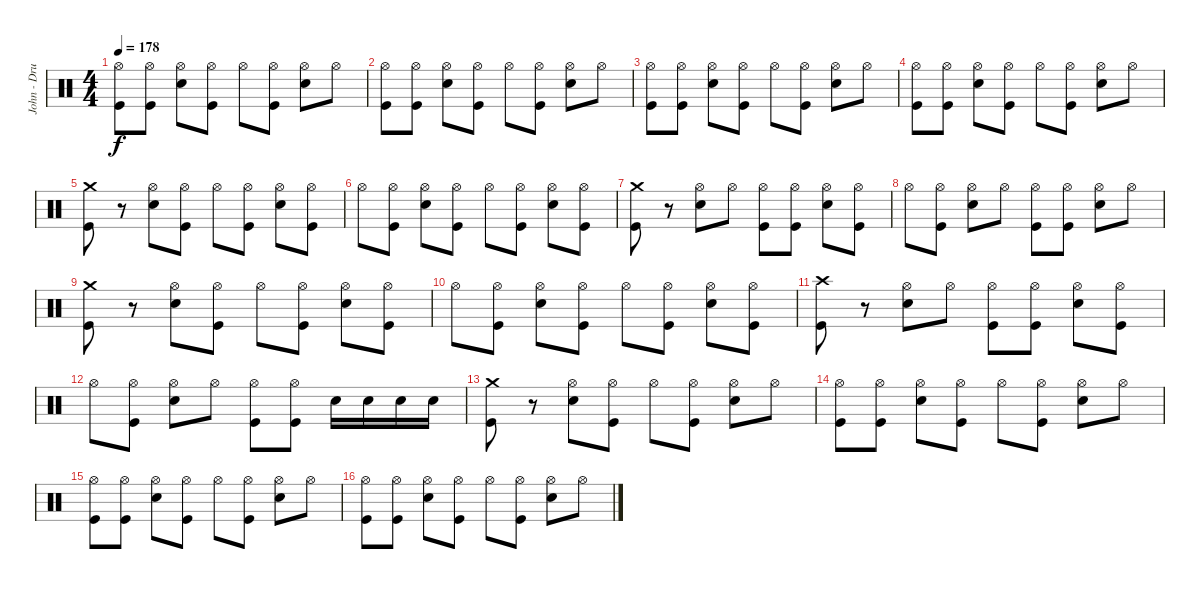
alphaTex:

\track ("John - Drums" "John - Dru") {instrument percussion}
\staff {score}
\articulation defaults
\ts (4 4)
\tempo 178
\clef neutral
\ks c
("Hi-Hat (open)" "Kick (hit)").8{dy f} ("Hi-Hat (open)" "Kick (hit)").8 ("Hi-Hat (open)" "Electric Snare (hit)").8 ("Hi-Hat (open)" "Kick (hit)").8 "Hi-Hat (open)".8 ("Hi-Hat (open)" "Kick (hit)").8 ("Hi-Hat (open)" "Electric Snare (hit)").8 "Hi-Hat (open)".8 |
("Hi-Hat (open)" "Kick (hit)").8 ("Hi-Hat (open)" "Kick (hit)").8 ("Hi-Hat (open)" "Electric Snare (hit)").8 ("Hi-Hat (open)" "Kick (hit)").8 "Hi-Hat (open)".8 ("Hi-Hat (open)" "Kick (hit)").8 ("Hi-Hat (open)" "Electric Snare (hit)").8 "Hi-Hat (open)".8 |
("Hi-Hat (open)" "Kick (hit)").8 ("Hi-Hat (open)" "Kick (hit)").8 ("Hi-Hat (open)" "Electric Snare (hit)").8 ("Hi-Hat (open)" "Kick (hit)").8 "Hi-Hat (open)".8 ("Hi-Hat (open)" "Kick (hit)").8 ("Hi-Hat (open)" "Electric Snare (hit)").8 "Hi-Hat (open)".8 |
("Hi-Hat (open)" "Kick (hit)").8 ("Hi-Hat (open)" "Kick (hit)").8 ("Hi-Hat (open)" "Electric Snare (hit)").8 ("Hi-Hat (open)" "Kick (hit)").8 "Hi-Hat (open)".8 ("Hi-Hat (open)" "Kick (hit)").8 ("Hi-Hat (open)" "Electric Snare (hit)").8 "Hi-Hat (open)".8 |
("Crash medium (hit)" "Kick (hit)").8 r.8 ("Hi-Hat (open)" "Electric Snare (hit)").8 ("Hi-Hat (open)" "Kick (hit)").8 "Hi-Hat (open)".8 ("Hi-Hat (open)" "Kick (hit)").8 ("Hi-Hat (open)" "Electric Snare (hit)").8 ("Hi-Hat (open)" "Kick (hit)").8 |
"Hi-Hat (open)".8 ("Hi-Hat (open)" "Kick (hit)").8 ("Hi-Hat (open)" "Electric Snare (hit)").8 ("Hi-Hat (open)" "Kick (hit)").8 "Hi-Hat (open)".8 ("Hi-Hat (open)" "Kick (hit)").8 ("Hi-Hat (open)" "Electric Snare (hit)").8 ("Hi-Hat (open)" "Kick (hit)").8 |
("Crash medium (hit)" "Kick (hit)").8 r.8 ("Hi-Hat (open)" "Electric Snare (hit)").8 "Hi-Hat (open)".8 ("Hi-Hat (open)" "Kick (hit)").8 ("Hi-Hat (open)" "Kick (hit)").8 ("Hi-Hat (open)" "Electric Snare (hit)").8 ("Hi-Hat (open)" "Kick (hit)").8 |
"Hi-Hat (open)".8 ("Hi-Hat (open)" "Kick (hit)").8 ("Hi-Hat (open)" "Electric Snare (hit)").8 "Hi-Hat (open)".8 ("Hi-Hat (open)" "Kick (hit)").8 ("Hi-Hat (open)" "Kick (hit)").8 ("Hi-Hat (open)" "Electric Snare (hit)").8 "Hi-Hat (open)".8 |
("Crash medium (hit)" "Kick (hit)").8 r.8 ("Hi-Hat (open)" "Electric Snare (hit)").8 ("Hi-Hat (open)" "Kick (hit)").8 "Hi-Hat (open)".8 ("Hi-Hat (open)" "Kick (hit)").8 ("Hi-Hat (open)" "Electric Snare (hit)").8 ("Hi-Hat (open)" "Kick (hit)").8 |
"Hi-Hat (open)".8 ("Hi-Hat (open)" "Kick (hit)").8 ("Hi-Hat (open)" "Electric Snare (hit)").8 ("Hi-Hat (open)" "Kick (hit)").8 "Hi-Hat (open)".8 ("Hi-Hat (open)" "Kick (hit)").8 ("Hi-Hat (open)" "Electric Snare (hit)").8 ("Hi-Hat (open)" "Kick (hit)").8 |
("Crash high (hit)" "Kick (hit)").8 r.8 ("Hi-Hat (open)" "Electric Snare (hit)").8 "Hi-Hat (open)".8 ("Hi-Hat (open)" "Kick (hit)").8 ("Hi-Hat (open)" "Kick (hit)").8 ("Hi-Hat (open)" "Electric Snare (hit)").8 ("Hi-Hat (open)" "Kick (hit)").8 |
"Hi-Hat (open)".8 ("Hi-Hat (open)" "Kick (hit)").8 ("Hi-Hat (open)" "Electric Snare (hit)").8 "Hi-Hat (open)".8 ("Hi-Hat (open)" "Kick (hit)").8 ("Hi-Hat (open)" "Kick (hit)").8 "Electric Snare (hit)".16 "Electric Snare (hit)".16 "Electric Snare (hit)".16 "Electric Snare (hit)".16 |
("Crash medium (hit)" "Kick (hit)").8 r.8 ("Hi-Hat (open)" "Electric Snare (hit)").8 ("Hi-Hat (open)" "Kick (hit)").8 "Hi-Hat (open)".8 ("Hi-Hat (open)" "Kick (hit)").8 ("Hi-Hat (open)" "Electric Snare (hit)").8 "Hi-Hat (open)".8 |
("Hi-Hat (open)" "Kick (hit)").8 ("Hi-Hat (open)" "Kick (hit)").8 ("Hi-Hat (open)" "Electric Snare (hit)").8 ("Hi-Hat (open)" "Kick (hit)").8 "Hi-Hat (open)".8 ("Hi-Hat (open)" "Kick (hit)").8 ("Hi-Hat (open)" "Electric Snare (hit)").8 "Hi-Hat (open)".8 |
("Hi-Hat (open)" "Kick (hit)").8 ("Hi-Hat (open)" "Kick (hit)").8 ("Hi-Hat (open)" "Electric Snare (hit)").8 ("Hi-Hat (open)" "Kick (hit)").8 "Hi-Hat (open)".8 ("Hi-Hat (open)" "Kick (hit)").8 ("Hi-Hat (open)" "Electric Snare (hit)").8 "Hi-Hat (open)".8 |
("Hi-Hat (open)" "Kick (hit)").8 ("Hi-Hat (open)" "Kick (hit)").8 ("Hi-Hat (open)" "Electric Snare (hit)").8 ("Hi-Hat (open)" "Kick (hit)").8 "Hi-Hat (open)".8 ("Hi-Hat (open)" "Kick (hit)").8 ("Hi-Hat (open)" "Electric Snare (hit)").8 "Hi-Hat (open)".8
